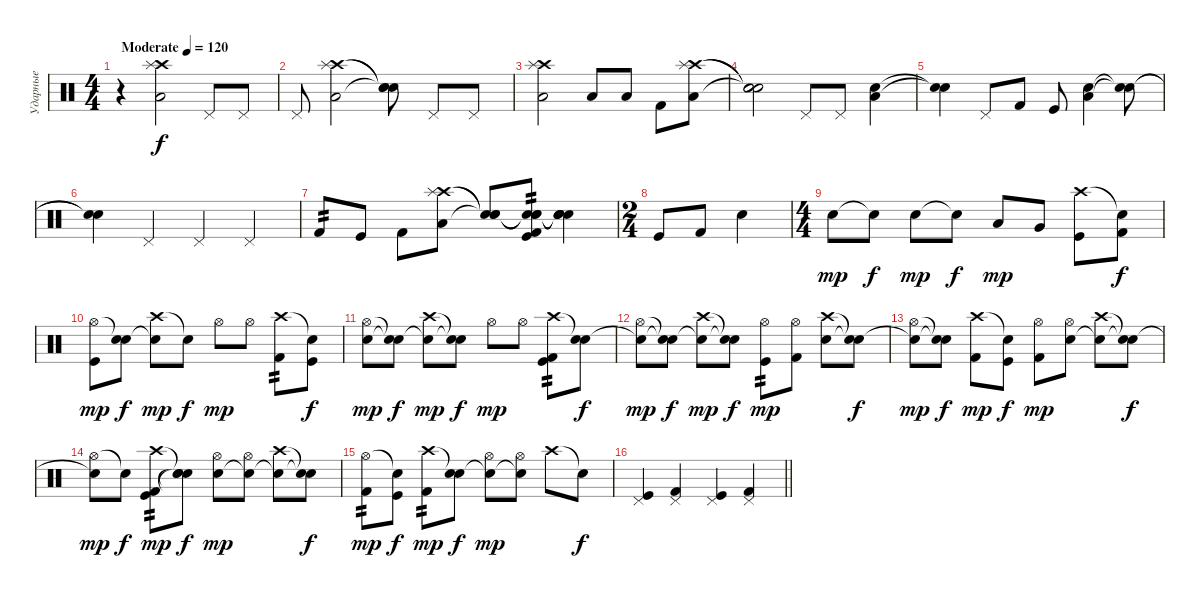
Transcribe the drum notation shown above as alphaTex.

\track ("Ударные" "Ударные") {instrument percussion}
\staff {score}
\articulation defaults
\ts (4 4)
\tempo (120 "Moderate")
\clef neutral
\ks c
r.4{dy f} ("Crash high (hit)" "Low Floor Tom (hit)" "Splash (hit)").2 "Pedal Hi-Hat (hit)".8 "Pedal Hi-Hat (hit)".8 |
"Pedal Hi-Hat (hit)".8 ("Crash high (hit)" "Low Floor Tom (hit)" "Splash (hit)").2 ("Snare (hit)"{t} "Snare (hit)"{t} "Snare (hit)"{t}).8 "Pedal Hi-Hat (hit)".8 "Pedal Hi-Hat (hit)".8 |
("Crash high (hit)" "Low Floor Tom (hit)" "Splash (hit)").2 "Low Floor Tom (hit)".8 "Low Tom (hit)".8 "Kick (hit) 2".8 ("Crash high (hit)" "Low Floor Tom (hit)" "Splash (hit)").8 |
("Snare (hit)"{t} "Snare (hit)"{t} "Snare (hit)"{t}).2 "Pedal Hi-Hat (hit)".8 "Pedal Hi-Hat (hit)".8 ("Snare (hit) 2" "Low Floor Tom (hit)").4 |
("Snare (hit)"{t} "Snare (hit)"{t}).4 "Pedal Hi-Hat (hit)".8 "Kick (hit) 2".8 "Kick (hit)".8 ("Snare (hit) 2" "Low Floor Tom (hit)").4 ("Snare (hit)"{t} "Snare (hit)"{t}).8 |
("Snare (hit)"{t} "Snare (hit)"{t}).4 "Pedal Hi-Hat (hit)".4 "Pedal Hi-Hat (hit)".4 "Pedal Hi-Hat (hit)".4 |
"Kick (hit) 2".8{tp 2} "Kick (hit)".8 "Kick (hit) 2".8 ("Crash high (hit)" "Low Floor Tom (hit)" "Splash (hit)").8 ("Snare (hit)"{t} "Snare (hit)"{t} "Snare (hit)"{t}).8 ("Snare (hit)"{t} "Snare (hit)"{t} "Snare (hit)"{t} "Kick (hit)" "Kick (hit) 2").8{tp 2} ("Snare (hit)"{t} "Snare (hit)"{t} "Snare (hit)"{t} "Snare (hit) 2").4 |
\ts (2 4)
"Kick (hit)".8 "Kick (hit) 2".8 "Electric Snare (hit)".4 |
\ts (4 4)
"Snare (hit) 2".8{dy mp} "Snare (hit)"{t}.8{dy f} "Snare (hit) 2".8{dy mp} "Snare (hit)"{t}.8{dy f} "Low Floor Tom (hit)".8{dy mp} "Very Low Tom (hit)".8 ("Crash high (hit)" "Kick (hit)").8 ("Snare (hit)"{t} "Kick (hit) 2").8{dy f} |
("Hi-Hat (open)" "Kick (hit)").8{dy mp} ("Snare (hit)"{t} "Snare (hit) 2").8{dy f} ("Crash high (hit)" "Snare (hit)"{t}).8{dy mp} "Snare (hit)"{t}.8{dy f} "Hi-Hat (open)".8{dy mp} "Hi-Hat (open)".8 ("Crash high (hit)" "Kick (hit) 2").8{tp 2} ("Snare (hit)"{t} "Kick (hit)").8{dy f} |
("Hi-Hat (open)" "Snare (hit) 2").8{dy mp} ("Snare (hit)"{t} "Snare (hit)"{t}).8{dy f} ("Crash high (hit)" "Snare (hit)"{t}).8{dy mp} ("Snare (hit)"{t} "Snare (hit)"{t}).8{dy f} "Hi-Hat (open)".8{dy mp} "Hi-Hat (open)".8 ("Crash high (hit)" "Kick (hit)" "Kick (hit) 2").8{tp 2} ("Snare (hit)"{t} "Snare (hit) 2").8{dy f} |
("Hi-Hat (open)" "Snare (hit)"{t}).8{dy mp} ("Snare (hit)"{t} "Snare (hit)"{t}).8{dy f} ("Crash high (hit)" "Snare (hit)"{t}).8{dy mp} ("Snare (hit)"{t} "Snare (hit)"{t}).8{dy f} ("Hi-Hat (open)" "Kick (hit)").8{tp 2 dy mp} ("Hi-Hat (open)" "Kick (hit) 2").8 ("Crash high (hit)" "Snare (hit) 2").8 ("Snare (hit)"{t} "Snare (hit)"{t}).8{dy f} |
("Hi-Hat (open)" "Snare (hit)"{t}).8{dy mp} ("Snare (hit)"{t} "Snare (hit)"{t}).8{dy f} ("Crash high (hit)" "Kick (hit) 2").8{dy mp} ("Snare (hit)"{t} "Kick (hit)").8{dy f} ("Hi-Hat (open)" "Kick (hit) 2").8{dy mp} ("Hi-Hat (open)" "Snare (hit) 2").8 ("Crash high (hit)" "Snare (hit)"{t}).8 ("Snare (hit)"{t} "Snare (hit)"{t}).8{dy f} |
("Hi-Hat (open)" "Snare (hit)"{t}).8{dy mp} "Snare (hit)"{t}.8{dy f} ("Crash high (hit)" "Kick (hit) 2" "Kick (hit)").8{tp 2 dy mp} ("Snare (hit)"{t} "Snare (hit)"{t} "Snare (hit)"{t}).8{dy f} ("Hi-Hat (open)" "Snare (hit) 2").8{dy mp} ("Hi-Hat (open)" "Snare (hit)"{t}).8 ("Crash high (hit)" "Snare (hit)"{t}).8 ("Snare (hit)"{t} "Snare (hit)"{t}).8{dy f} |
("Hi-Hat (open)" "Kick (hit) 2").8{tp 2 dy mp} ("Snare (hit)"{t} "Kick (hit)").8{dy f} ("Crash high (hit)" "Kick (hit) 2").8{tp 2 dy mp} ("Snare (hit)"{t} "Snare (hit) 2").8{dy f} ("Hi-Hat (open)" "Snare (hit)"{t}).8{dy mp} ("Hi-Hat (open)" "Snare (hit)"{t}).8 "Crash high (hit)".8 "Snare (hit)"{t}.8{dy f} |
\barLineRight lightlight
("Kick (hit)" "Pedal Hi-Hat (hit)").4 ("Kick (hit) 2" "Pedal Hi-Hat (hit)").4 ("Kick (hit)" "Pedal Hi-Hat (hit)").4 ("Kick (hit) 2" "Pedal Hi-Hat (hit)").4
